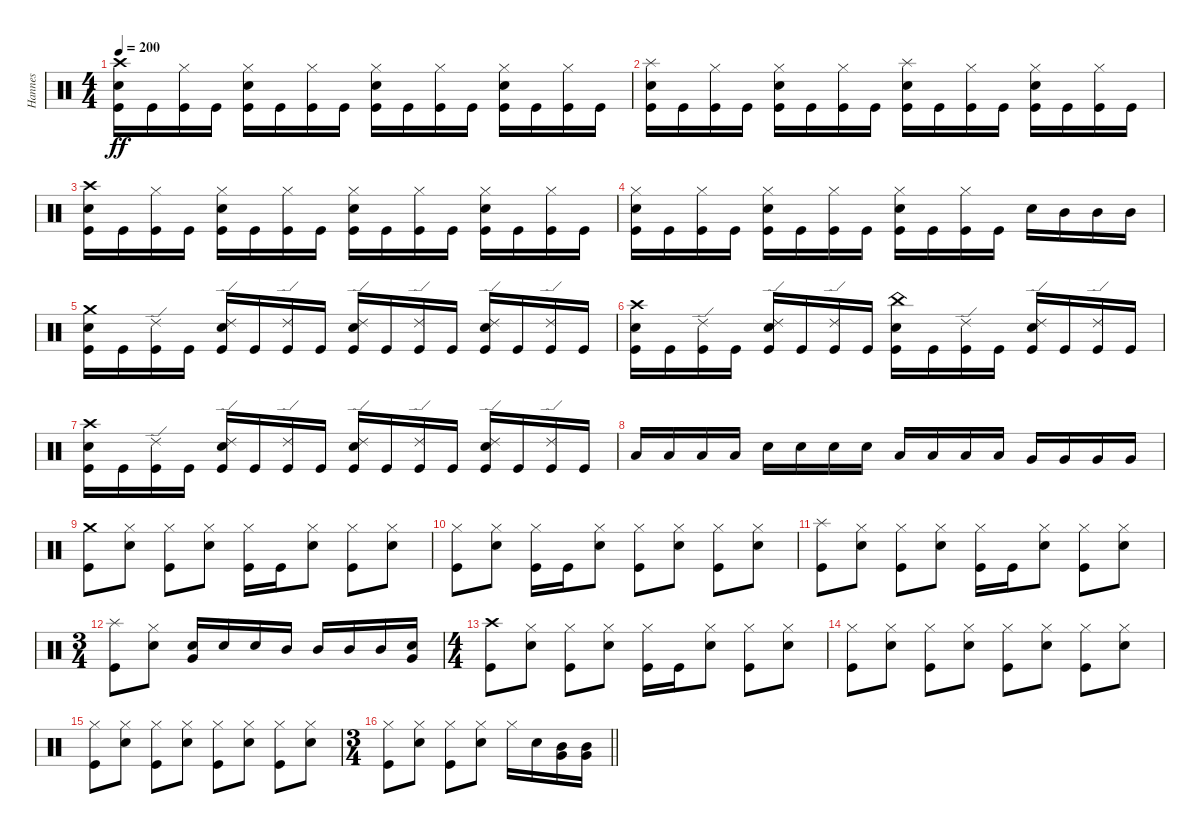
\track ("Hannes" "Hannes") {instrument percussion}
\staff {score}
\articulation defaults
\ts (4 4)
\tempo 200
\clef neutral
\ks c
("Crash high (hit)" "Electric Snare (hit)" "Kick (hit)").16{dy ff} "Kick (hit)".16 ("Hi-Hat (closed)" "Kick (hit)").16 "Kick (hit)".16 ("Hi-Hat (closed)" "Electric Snare (hit)" "Kick (hit)").16 "Kick (hit)".16 ("Hi-Hat (closed)" "Kick (hit)").16 "Kick (hit)".16 ("Hi-Hat (closed)" "Electric Snare (hit)" "Kick (hit)").16 "Kick (hit)".16 ("Hi-Hat (closed)" "Kick (hit)").16 "Kick (hit)".16 ("Hi-Hat (closed)" "Electric Snare (hit)" "Kick (hit)").16 "Kick (hit)".16 ("Hi-Hat (closed)" "Kick (hit)").16 "Kick (hit)".16 |
("Splash (hit)" "Electric Snare (hit)" "Kick (hit)").16 "Kick (hit)".16 ("Hi-Hat (closed)" "Kick (hit)").16 "Kick (hit)".16 ("Hi-Hat (closed)" "Electric Snare (hit)" "Kick (hit)").16 "Kick (hit)".16 ("Hi-Hat (closed)" "Kick (hit)").16 "Kick (hit)".16 ("Splash (hit)" "Electric Snare (hit)" "Kick (hit)").16 "Kick (hit)".16 ("Hi-Hat (closed)" "Kick (hit)").16 "Kick (hit)".16 ("Hi-Hat (closed)" "Electric Snare (hit)" "Kick (hit)").16 "Kick (hit)".16 ("Hi-Hat (closed)" "Kick (hit)").16 "Kick (hit)".16 |
("Crash high (hit)" "Electric Snare (hit)" "Kick (hit)").16 "Kick (hit)".16 ("Hi-Hat (closed)" "Kick (hit)").16 "Kick (hit)".16 ("Hi-Hat (closed)" "Electric Snare (hit)" "Kick (hit)").16 "Kick (hit)".16 ("Hi-Hat (closed)" "Kick (hit)").16 "Kick (hit)".16 ("Hi-Hat (closed)" "Electric Snare (hit)" "Kick (hit)").16 "Kick (hit)".16 ("Hi-Hat (closed)" "Kick (hit)").16 "Kick (hit)".16 ("Hi-Hat (closed)" "Electric Snare (hit)" "Kick (hit)").16 "Kick (hit)".16 ("Hi-Hat (closed)" "Kick (hit)").16 "Kick (hit)".16 |
("Hi-Hat (closed)" "Electric Snare (hit)" "Kick (hit)").16 "Kick (hit)".16 ("Hi-Hat (closed)" "Kick (hit)").16 "Kick (hit)".16 ("Hi-Hat (closed)" "Electric Snare (hit)" "Kick (hit)").16 "Kick (hit)".16 ("Hi-Hat (closed)" "Kick (hit)").16 "Kick (hit)".16 ("Hi-Hat (closed)" "Electric Snare (hit)" "Kick (hit)").16 "Kick (hit)".16 ("Hi-Hat (closed)" "Kick (hit)").16 "Kick (hit)".16 "Electric Snare (hit)".16 "Mid Tom (hit)".16 "Mid Tom (hit)".16 "Mid Tom (hit)".16 |
("Crash medium (hit)" "Electric Snare (hit)" "Kick (hit)").16 "Kick (hit)".16 ("Ride (edge) 2" "Kick (hit)").16 "Kick (hit)".16 ("Ride (edge) 2" "Electric Snare (hit)" "Kick (hit)").16 "Kick (hit)".16 ("Ride (edge) 2" "Kick (hit)").16 "Kick (hit)".16 ("Ride (edge) 2" "Electric Snare (hit)" "Kick (hit)").16 "Kick (hit)".16 ("Ride (edge) 2" "Kick (hit)").16 "Kick (hit)".16 ("Ride (edge) 2" "Electric Snare (hit)" "Kick (hit)").16 "Kick (hit)".16 ("Ride (edge) 2" "Kick (hit)").16 "Kick (hit)".16 |
("Crash high (hit)" "Electric Snare (hit)" "Kick (hit)").16 "Kick (hit)".16 ("Ride (edge) 2" "Kick (hit)").16 "Kick (hit)".16 ("Ride (edge) 2" "Electric Snare (hit)" "Kick (hit)").16 "Kick (hit)".16 ("Ride (edge) 2" "Kick (hit)").16 "Kick (hit)".16 ("China (hit)" "Electric Snare (hit)" "Kick (hit)").16 "Kick (hit)".16 ("Ride (edge) 2" "Kick (hit)").16 "Kick (hit)".16 ("Ride (edge) 2" "Electric Snare (hit)" "Kick (hit)").16 "Kick (hit)".16 ("Ride (edge) 2" "Kick (hit)").16 "Kick (hit)".16 |
("Crash high (hit)" "Electric Snare (hit)" "Kick (hit)").16 "Kick (hit)".16 ("Ride (edge) 2" "Kick (hit)").16 "Kick (hit)".16 ("Ride (edge) 2" "Electric Snare (hit)" "Kick (hit)").16 "Kick (hit)".16 ("Ride (edge) 2" "Kick (hit)").16 "Kick (hit)".16 ("Ride (edge) 2" "Electric Snare (hit)" "Kick (hit)").16 "Kick (hit)".16 ("Ride (edge) 2" "Kick (hit)").16 "Kick (hit)".16 ("Ride (edge) 2" "Electric Snare (hit)" "Kick (hit)").16 "Kick (hit)".16 ("Ride (edge) 2" "Kick (hit)").16 "Kick (hit)".16 |
"Low Tom (hit)".16 "Low Tom (hit)".16 "Low Tom (hit)".16 "Low Tom (hit)".16 "Electric Snare (hit)".16 "Electric Snare (hit)".16 "Electric Snare (hit)".16 "Electric Snare (hit)".16 "Low Tom (hit)".16 "Low Tom (hit)".16 "Low Tom (hit)".16 "Low Tom (hit)".16 "Very Low Tom (hit)".16 "Very Low Tom (hit)".16 "Very Low Tom (hit)".16 "Very Low Tom (hit)".16 |
("Crash medium (hit)" "Kick (hit)").8 ("Hi-Hat (closed)" "Electric Snare (hit)").8 ("Hi-Hat (closed)" "Kick (hit)").8 ("Hi-Hat (closed)" "Electric Snare (hit)").8 ("Hi-Hat (closed)" "Kick (hit)").16 "Kick (hit)".16 ("Hi-Hat (closed)" "Electric Snare (hit)").8 ("Hi-Hat (closed)" "Kick (hit)").8 ("Hi-Hat (closed)" "Electric Snare (hit)").8 |
("Hi-Hat (closed)" "Kick (hit)").8 ("Hi-Hat (closed)" "Electric Snare (hit)").8 ("Hi-Hat (closed)" "Kick (hit)").16 "Kick (hit)".16 ("Hi-Hat (closed)" "Electric Snare (hit)").8 ("Hi-Hat (closed)" "Kick (hit)").8 ("Hi-Hat (closed)" "Electric Snare (hit)").8 ("Hi-Hat (closed)" "Kick (hit)").8 ("Hi-Hat (closed)" "Electric Snare (hit)").8 |
("Splash (hit)" "Kick (hit)").8 ("Hi-Hat (closed)" "Electric Snare (hit)").8 ("Hi-Hat (closed)" "Kick (hit)").8 ("Hi-Hat (closed)" "Electric Snare (hit)").8 ("Hi-Hat (closed)" "Kick (hit)").16 "Kick (hit)".16 ("Hi-Hat (closed)" "Electric Snare (hit)").8 ("Hi-Hat (closed)" "Kick (hit)").8 ("Hi-Hat (closed)" "Electric Snare (hit)").8 |
\ts (3 4)
("Splash (hit)" "Kick (hit)").8 ("Hi-Hat (closed)" "Electric Snare (hit)").8 ("Very Low Tom (hit)" "Electric Snare (hit)").16 "Electric Snare (hit)".16 "Electric Snare (hit)".16 "Mid Tom (hit)".16 "Mid Tom (hit)".16 "Mid Tom (hit)".16 "Mid Tom (hit)".16 ("Very Low Tom (hit)" "Electric Snare (hit)").16 |
\ts (4 4)
("Crash high (hit)" "Kick (hit)").8 ("Hi-Hat (closed)" "Electric Snare (hit)").8 ("Hi-Hat (closed)" "Kick (hit)").8 ("Hi-Hat (closed)" "Electric Snare (hit)").8 ("Hi-Hat (closed)" "Kick (hit)").16 "Kick (hit)".16 ("Hi-Hat (closed)" "Electric Snare (hit)").8 ("Hi-Hat (closed)" "Kick (hit)").8 ("Hi-Hat (closed)" "Electric Snare (hit)").8 |
("Hi-Hat (closed)" "Kick (hit)").8 ("Hi-Hat (closed)" "Electric Snare (hit)").8 ("Hi-Hat (closed)" "Kick (hit)").8 ("Hi-Hat (closed)" "Electric Snare (hit)").8 ("Hi-Hat (closed)" "Kick (hit)").8 ("Hi-Hat (closed)" "Electric Snare (hit)").8 ("Hi-Hat (closed)" "Kick (hit)").8 ("Hi-Hat (closed)" "Electric Snare (hit)").8 |
("Hi-Hat (closed)" "Kick (hit)").8 ("Hi-Hat (closed)" "Electric Snare (hit)").8 ("Hi-Hat (closed)" "Kick (hit)").8 ("Hi-Hat (closed)" "Electric Snare (hit)").8 ("Hi-Hat (closed)" "Kick (hit)").8 ("Hi-Hat (closed)" "Electric Snare (hit)").8 ("Hi-Hat (closed)" "Kick (hit)").8 ("Hi-Hat (closed)" "Electric Snare (hit)").8 |
\ts (3 4)
\barLineRight lightlight
("Hi-Hat (closed)" "Kick (hit)").8 ("Hi-Hat (closed)" "Electric Snare (hit)").8 ("Hi-Hat (closed)" "Kick (hit)").8 ("Hi-Hat (closed)" "Electric Snare (hit)").8 "Hi-Hat (closed)".16 "Electric Snare (hit)".16 ("Very Low Tom (hit)" "Mid Tom (hit)").16 ("Very Low Tom (hit)" "Mid Tom (hit)").16
